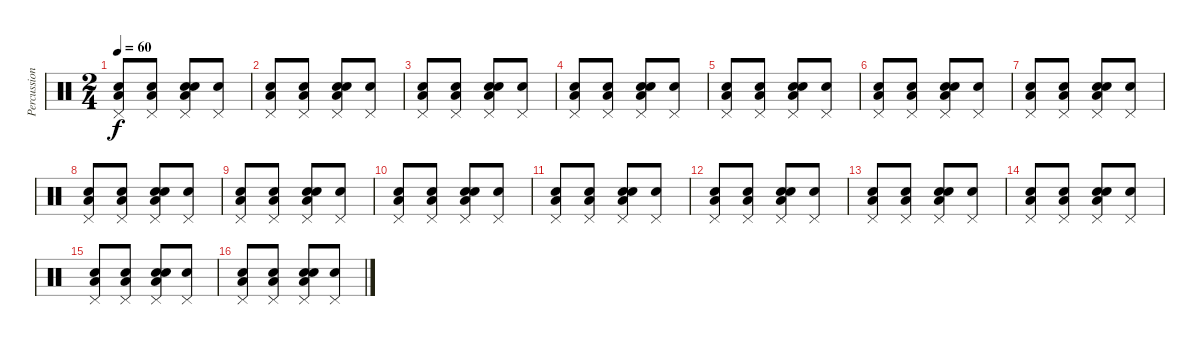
\track ("Percussion" "Percussion") {instrument percussion}
\staff {score}
\articulation defaults
\ts (2 4)
\tempo 60
\clef neutral
\ks c
("Snare (hit)" "Low Floor Tom (hit)" "Pedal Hi-Hat (hit)").8{dy f} ("Snare (hit)" "Low Floor Tom (hit)" "Pedal Hi-Hat (hit)").8 ("Snare (hit)" "Electric Snare (hit)" "Low Floor Tom (hit)" "Pedal Hi-Hat (hit)").8 ("Snare (hit)" "Pedal Hi-Hat (hit)").8 |
("Snare (hit)" "Low Floor Tom (hit)" "Pedal Hi-Hat (hit)").8 ("Snare (hit)" "Low Floor Tom (hit)" "Pedal Hi-Hat (hit)").8 ("Snare (hit)" "Electric Snare (hit)" "Low Floor Tom (hit)" "Pedal Hi-Hat (hit)").8 ("Snare (hit)" "Pedal Hi-Hat (hit)").8 |
("Snare (hit)" "Low Floor Tom (hit)" "Pedal Hi-Hat (hit)").8 ("Snare (hit)" "Low Floor Tom (hit)" "Pedal Hi-Hat (hit)").8 ("Snare (hit)" "Electric Snare (hit)" "Low Floor Tom (hit)" "Pedal Hi-Hat (hit)").8 ("Snare (hit)" "Pedal Hi-Hat (hit)").8 |
("Snare (hit)" "Low Floor Tom (hit)" "Pedal Hi-Hat (hit)").8 ("Snare (hit)" "Low Floor Tom (hit)" "Pedal Hi-Hat (hit)").8 ("Snare (hit)" "Electric Snare (hit)" "Low Floor Tom (hit)" "Pedal Hi-Hat (hit)").8 ("Snare (hit)" "Pedal Hi-Hat (hit)").8 |
("Snare (hit)" "Low Floor Tom (hit)" "Pedal Hi-Hat (hit)").8 ("Snare (hit)" "Low Floor Tom (hit)" "Pedal Hi-Hat (hit)").8 ("Snare (hit)" "Electric Snare (hit)" "Low Floor Tom (hit)" "Pedal Hi-Hat (hit)").8 ("Snare (hit)" "Pedal Hi-Hat (hit)").8 |
("Snare (hit)" "Low Floor Tom (hit)" "Pedal Hi-Hat (hit)").8 ("Snare (hit)" "Low Floor Tom (hit)" "Pedal Hi-Hat (hit)").8 ("Snare (hit)" "Electric Snare (hit)" "Low Floor Tom (hit)" "Pedal Hi-Hat (hit)").8 ("Snare (hit)" "Pedal Hi-Hat (hit)").8 |
("Snare (hit)" "Low Floor Tom (hit)" "Pedal Hi-Hat (hit)").8 ("Snare (hit)" "Low Floor Tom (hit)" "Pedal Hi-Hat (hit)").8 ("Snare (hit)" "Electric Snare (hit)" "Low Floor Tom (hit)" "Pedal Hi-Hat (hit)").8 ("Snare (hit)" "Pedal Hi-Hat (hit)").8 |
("Snare (hit)" "Low Floor Tom (hit)" "Pedal Hi-Hat (hit)").8 ("Snare (hit)" "Low Floor Tom (hit)" "Pedal Hi-Hat (hit)").8 ("Snare (hit)" "Electric Snare (hit)" "Low Floor Tom (hit)" "Pedal Hi-Hat (hit)").8 ("Snare (hit)" "Pedal Hi-Hat (hit)").8 |
("Snare (hit)" "Low Floor Tom (hit)" "Pedal Hi-Hat (hit)").8 ("Snare (hit)" "Low Floor Tom (hit)" "Pedal Hi-Hat (hit)").8 ("Snare (hit)" "Electric Snare (hit)" "Low Floor Tom (hit)" "Pedal Hi-Hat (hit)").8 ("Snare (hit)" "Pedal Hi-Hat (hit)").8 |
("Snare (hit)" "Low Floor Tom (hit)" "Pedal Hi-Hat (hit)").8 ("Snare (hit)" "Low Floor Tom (hit)" "Pedal Hi-Hat (hit)").8 ("Snare (hit)" "Electric Snare (hit)" "Low Floor Tom (hit)" "Pedal Hi-Hat (hit)").8 ("Snare (hit)" "Pedal Hi-Hat (hit)").8 |
("Snare (hit)" "Low Floor Tom (hit)" "Pedal Hi-Hat (hit)").8 ("Snare (hit)" "Low Floor Tom (hit)" "Pedal Hi-Hat (hit)").8 ("Snare (hit)" "Electric Snare (hit)" "Low Floor Tom (hit)" "Pedal Hi-Hat (hit)").8 ("Snare (hit)" "Pedal Hi-Hat (hit)").8 |
("Snare (hit)" "Low Floor Tom (hit)" "Pedal Hi-Hat (hit)").8 ("Snare (hit)" "Low Floor Tom (hit)" "Pedal Hi-Hat (hit)").8 ("Snare (hit)" "Electric Snare (hit)" "Low Floor Tom (hit)" "Pedal Hi-Hat (hit)").8 ("Snare (hit)" "Pedal Hi-Hat (hit)").8 |
("Snare (hit)" "Low Floor Tom (hit)" "Pedal Hi-Hat (hit)").8 ("Snare (hit)" "Low Floor Tom (hit)" "Pedal Hi-Hat (hit)").8 ("Snare (hit)" "Electric Snare (hit)" "Low Floor Tom (hit)" "Pedal Hi-Hat (hit)").8 ("Snare (hit)" "Pedal Hi-Hat (hit)").8 |
("Snare (hit)" "Low Floor Tom (hit)" "Pedal Hi-Hat (hit)").8 ("Snare (hit)" "Low Floor Tom (hit)" "Pedal Hi-Hat (hit)").8 ("Snare (hit)" "Electric Snare (hit)" "Low Floor Tom (hit)" "Pedal Hi-Hat (hit)").8 ("Snare (hit)" "Pedal Hi-Hat (hit)").8 |
("Snare (hit)" "Low Floor Tom (hit)" "Pedal Hi-Hat (hit)").8 ("Snare (hit)" "Low Floor Tom (hit)" "Pedal Hi-Hat (hit)").8 ("Snare (hit)" "Electric Snare (hit)" "Low Floor Tom (hit)" "Pedal Hi-Hat (hit)").8 ("Snare (hit)" "Pedal Hi-Hat (hit)").8 |
("Snare (hit)" "Low Floor Tom (hit)" "Pedal Hi-Hat (hit)").8 ("Snare (hit)" "Low Floor Tom (hit)" "Pedal Hi-Hat (hit)").8 ("Snare (hit)" "Electric Snare (hit)" "Low Floor Tom (hit)" "Pedal Hi-Hat (hit)").8 ("Snare (hit)" "Pedal Hi-Hat (hit)").8
